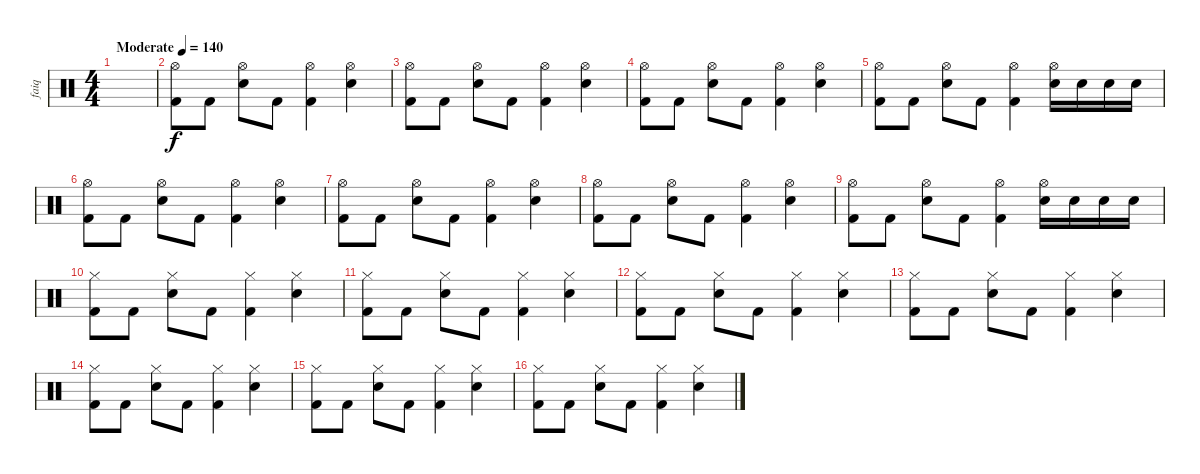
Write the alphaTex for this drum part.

\track ("faiq" "faiq") {instrument percussion}
\staff {score}
\articulation defaults
\ts (4 4)
\tempo (140 "Moderate")
\clef neutral
\ks c
|
("Hi-Hat (open)" "Kick (hit) 2").8 "Kick (hit) 2".8 ("Hi-Hat (open)" "Electric Snare (hit)").8 "Kick (hit) 2".8 ("Hi-Hat (open)" "Kick (hit) 2").4 ("Hi-Hat (open)" "Electric Snare (hit)").4 |
("Hi-Hat (open)" "Kick (hit) 2").8 "Kick (hit) 2".8 ("Hi-Hat (open)" "Electric Snare (hit)").8 "Kick (hit) 2".8 ("Hi-Hat (open)" "Kick (hit) 2").4 ("Hi-Hat (open)" "Electric Snare (hit)").4 |
("Hi-Hat (open)" "Kick (hit) 2").8 "Kick (hit) 2".8 ("Hi-Hat (open)" "Electric Snare (hit)").8 "Kick (hit) 2".8 ("Hi-Hat (open)" "Kick (hit) 2").4 ("Hi-Hat (open)" "Electric Snare (hit)").4 |
("Hi-Hat (open)" "Kick (hit) 2").8 "Kick (hit) 2".8 ("Hi-Hat (open)" "Electric Snare (hit)").8 "Kick (hit) 2".8 ("Hi-Hat (open)" "Kick (hit) 2").4 ("Hi-Hat (open)" "Electric Snare (hit)").16 "Electric Snare (hit)".16 "Electric Snare (hit)".16 "Electric Snare (hit)".16 |
("Hi-Hat (open)" "Kick (hit) 2").8 "Kick (hit) 2".8 ("Hi-Hat (open)" "Electric Snare (hit)").8 "Kick (hit) 2".8 ("Hi-Hat (open)" "Kick (hit) 2").4 ("Hi-Hat (open)" "Electric Snare (hit)").4 |
("Hi-Hat (open)" "Kick (hit) 2").8 "Kick (hit) 2".8 ("Hi-Hat (open)" "Electric Snare (hit)").8 "Kick (hit) 2".8 ("Hi-Hat (open)" "Kick (hit) 2").4 ("Hi-Hat (open)" "Electric Snare (hit)").4 |
("Hi-Hat (open)" "Kick (hit) 2").8 "Kick (hit) 2".8 ("Hi-Hat (open)" "Electric Snare (hit)").8 "Kick (hit) 2".8 ("Hi-Hat (open)" "Kick (hit) 2").4 ("Hi-Hat (open)" "Electric Snare (hit)").4 |
("Hi-Hat (open)" "Kick (hit) 2").8 "Kick (hit) 2".8 ("Hi-Hat (open)" "Electric Snare (hit)").8 "Kick (hit) 2".8 ("Hi-Hat (open)" "Kick (hit) 2").4 ("Hi-Hat (open)" "Electric Snare (hit)").16 "Electric Snare (hit)".16 "Electric Snare (hit)".16 "Electric Snare (hit)".16 |
("Hi-Hat (closed)" "Kick (hit) 2").8 "Kick (hit) 2".8 ("Hi-Hat (closed)" "Electric Snare (hit)").8 "Kick (hit) 2".8 ("Hi-Hat (closed)" "Kick (hit) 2").4 ("Hi-Hat (closed)" "Electric Snare (hit)").4 |
("Hi-Hat (closed)" "Kick (hit) 2").8 "Kick (hit) 2".8 ("Hi-Hat (closed)" "Electric Snare (hit)").8 "Kick (hit) 2".8 ("Hi-Hat (closed)" "Kick (hit) 2").4 ("Hi-Hat (closed)" "Electric Snare (hit)").4 |
("Hi-Hat (closed)" "Kick (hit) 2").8 "Kick (hit) 2".8 ("Hi-Hat (closed)" "Electric Snare (hit)").8 "Kick (hit) 2".8 ("Hi-Hat (closed)" "Kick (hit) 2").4 ("Hi-Hat (closed)" "Electric Snare (hit)").4 |
("Hi-Hat (closed)" "Kick (hit) 2").8 "Kick (hit) 2".8 ("Hi-Hat (closed)" "Electric Snare (hit)").8 "Kick (hit) 2".8 ("Hi-Hat (closed)" "Kick (hit) 2").4 ("Hi-Hat (closed)" "Electric Snare (hit)").4 |
("Hi-Hat (closed)" "Kick (hit) 2").8 "Kick (hit) 2".8 ("Hi-Hat (closed)" "Electric Snare (hit)").8 "Kick (hit) 2".8 ("Hi-Hat (closed)" "Kick (hit) 2").4 ("Hi-Hat (closed)" "Electric Snare (hit)").4 |
("Hi-Hat (closed)" "Kick (hit) 2").8 "Kick (hit) 2".8 ("Hi-Hat (closed)" "Electric Snare (hit)").8 "Kick (hit) 2".8 ("Hi-Hat (closed)" "Kick (hit) 2").4 ("Hi-Hat (closed)" "Electric Snare (hit)").4 |
("Hi-Hat (closed)" "Kick (hit) 2").8 "Kick (hit) 2".8 ("Hi-Hat (closed)" "Electric Snare (hit)").8 "Kick (hit) 2".8 ("Hi-Hat (closed)" "Kick (hit) 2").4 ("Hi-Hat (closed)" "Electric Snare (hit)").4
